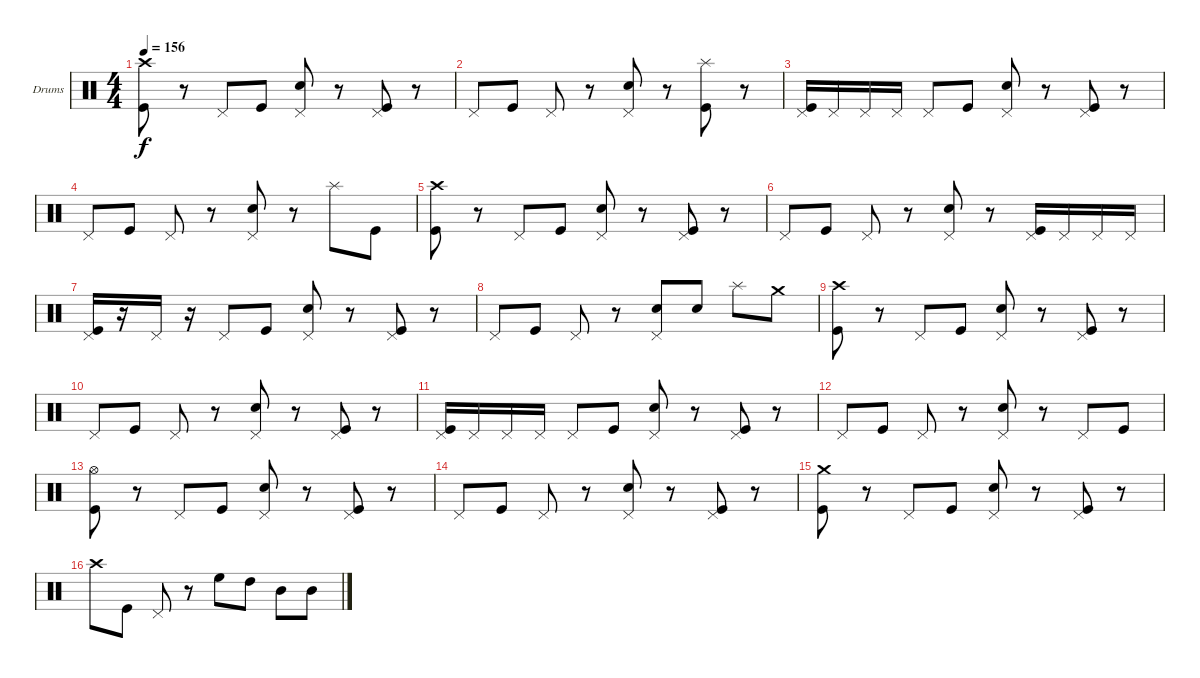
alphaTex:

\defaultSystemsLayout 4
\bracketExtendMode groupsimilarinstruments
\firstSystemTrackNameOrientation horizontal
\otherSystemsTrackNameOrientation horizontal
\track ("Anton Kubrak" "Drums") {instrument percussion}
\staff {score}
\articulation defaults
\ts (4 4)
\tempo 156
\clef neutral
\scale
0.333333
\ks c
("Crash high (hit)" "Kick (hit)").8{dy f} r.8 "Pedal Hi-Hat (hit)".8 "Kick (hit)".8 ("Pedal Hi-Hat (hit)" "Snare (hit) 2").8 r.8 ("Pedal Hi-Hat (hit)" "Kick (hit)").8 r.8 |
\scale
0.333333 "Pedal Hi-Hat (hit)".8 "Kick (hit)".8 "Pedal Hi-Hat (hit)".8 r.8 ("Pedal Hi-Hat (hit)" "Snare (hit) 2").8 r.8 ("Splash (hit)" "Kick (hit)").8 r.8 |
\scale
0.333333 ("Pedal Hi-Hat (hit)" "Kick (hit)").16 "Pedal Hi-Hat (hit)".16 "Pedal Hi-Hat (hit)".16 "Pedal Hi-Hat (hit)".16 "Pedal Hi-Hat (hit)".8 "Kick (hit)".8 ("Pedal Hi-Hat (hit)" "Snare (hit) 2").8 r.8 ("Pedal Hi-Hat (hit)" "Kick (hit)").8 r.8 |
\scale
0.333333 "Pedal Hi-Hat (hit)".8 "Kick (hit)".8 "Pedal Hi-Hat (hit)".8 r.8 ("Pedal Hi-Hat (hit)" "Snare (hit) 2").8 r.8 "Splash (hit)".8 "Kick (hit)".8 |
\scale
0.333333 ("Crash high (hit)" "Kick (hit)").8 r.8 "Pedal Hi-Hat (hit)".8 "Kick (hit)".8 ("Pedal Hi-Hat (hit)" "Snare (hit) 2").8 r.8 ("Pedal Hi-Hat (hit)" "Kick (hit)").8 r.8 |
\scale
0.333333 "Pedal Hi-Hat (hit)".8 "Kick (hit)".8 "Pedal Hi-Hat (hit)".8 r.8 ("Pedal Hi-Hat (hit)" "Snare (hit) 2").8 r.8 ("Pedal Hi-Hat (hit)" "Kick (hit)").16 "Pedal Hi-Hat (hit)".16 "Pedal Hi-Hat (hit)".16 "Pedal Hi-Hat (hit)".16 |
\scale
0.333333 ("Pedal Hi-Hat (hit)" "Kick (hit)").16 r.16 "Pedal Hi-Hat (hit)".16 r.16 "Pedal Hi-Hat (hit)".8 "Kick (hit)".8 ("Pedal Hi-Hat (hit)" "Snare (hit) 2").8 r.8 ("Pedal Hi-Hat (hit)" "Kick (hit)").8 r.8 |
\scale
0.333333 "Pedal Hi-Hat (hit)".8 "Kick (hit)".8 "Pedal Hi-Hat (hit)".8 r.8 ("Pedal Hi-Hat (hit)" "Snare (hit) 2").8 "Snare (hit) 2".8 "Splash (hit)".8 "Crash medium (hit)".8 |
\scale
0.333333 ("Crash high (hit)" "Kick (hit)").8 r.8 "Pedal Hi-Hat (hit)".8 "Kick (hit)".8 ("Pedal Hi-Hat (hit)" "Snare (hit) 2").8 r.8 ("Pedal Hi-Hat (hit)" "Kick (hit)").8 r.8 |
\scale
0.333333 "Pedal Hi-Hat (hit)".8 "Kick (hit)".8 "Pedal Hi-Hat (hit)".8 r.8 ("Pedal Hi-Hat (hit)" "Snare (hit) 2").8 r.8 ("Pedal Hi-Hat (hit)" "Kick (hit)").8 r.8 |
\scale
0.333333 ("Pedal Hi-Hat (hit)" "Kick (hit)").16 "Pedal Hi-Hat (hit)".16 "Pedal Hi-Hat (hit)".16 "Pedal Hi-Hat (hit)".16 "Pedal Hi-Hat (hit)".8 "Kick (hit)".8 ("Pedal Hi-Hat (hit)" "Snare (hit) 2").8 r.8 ("Pedal Hi-Hat (hit)" "Kick (hit)").8 r.8 |
\scale
0.333333 "Pedal Hi-Hat (hit)".8 "Kick (hit)".8 "Pedal Hi-Hat (hit)".8 r.8 ("Pedal Hi-Hat (hit)" "Snare (hit) 2").8 r.8 "Pedal Hi-Hat (hit)".8 "Kick (hit)".8 |
\scale
0.333333 ("Hi-Hat (open)" "Kick (hit)").8 r.8 "Pedal Hi-Hat (hit)".8 "Kick (hit)".8 ("Pedal Hi-Hat (hit)" "Snare (hit) 2").8 r.8 ("Pedal Hi-Hat (hit)" "Kick (hit)").8 r.8 |
\scale
0.333333 "Pedal Hi-Hat (hit)".8 "Kick (hit)".8 "Pedal Hi-Hat (hit)".8 r.8 ("Pedal Hi-Hat (hit)" "Snare (hit) 2").8 r.8 ("Pedal Hi-Hat (hit)" "Kick (hit)").8 r.8 |
\scale
0.333333 ("Crash medium (hit)" "Kick (hit)").8 r.8 "Pedal Hi-Hat (hit)".8 "Kick (hit)".8 ("Pedal Hi-Hat (hit)" "Snare (hit) 2").8 r.8 ("Pedal Hi-Hat (hit)" "Kick (hit)").8 r.8 |
\scale
0.333333 "Crash high (hit)".8 "Kick (hit)".8 "Pedal Hi-Hat (hit)".8 r.8 "High Floor Tom (hit)".8 "High Tom (hit)".8 "Mid Tom (hit)".8 "Mid Tom (hit)".8
